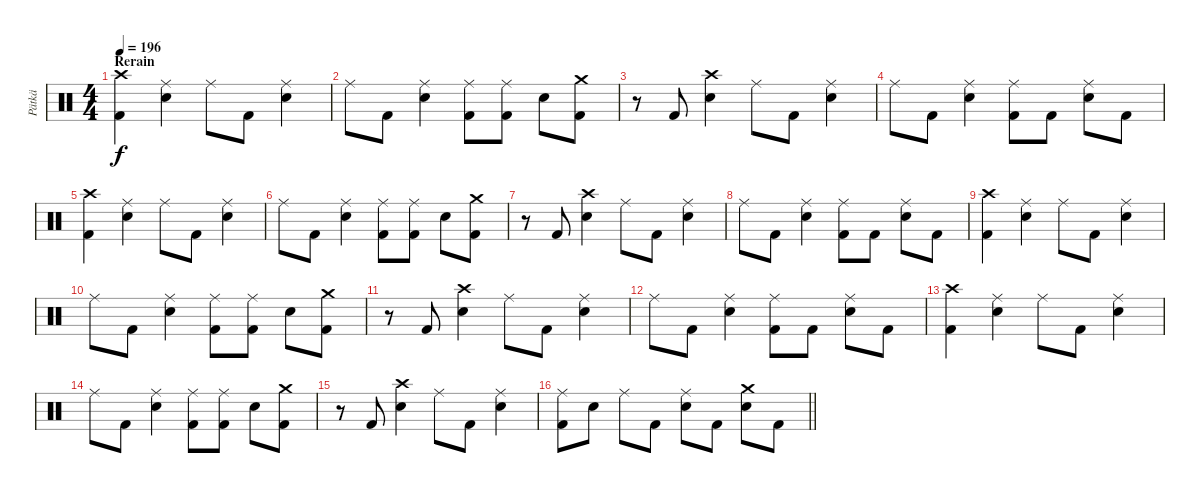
\track ("Pätkä" "Pätkä") {instrument percussion}
\staff {score}
\articulation defaults
\ts (4 4)
\section ("" "Rerain")
\tempo 196
\clef neutral
\ks c
("Crash high (hit)" "Kick (hit) 2").4{dy f} ("Ride (middle)" "Electric Snare (hit)").4 "Ride (middle)".8 "Kick (hit) 2".8 ("Ride (middle)" "Electric Snare (hit)").4 |
"Ride (middle)".8 "Kick (hit) 2".8 ("Ride (middle)" "Electric Snare (hit)").4 ("Ride (middle)" "Kick (hit) 2").8 ("Ride (middle)" "Kick (hit) 2").8 "Electric Snare (hit)".8 ("Crash medium (hit)" "Kick (hit) 2").8 |
r.8 "Kick (hit) 2".8 ("Crash high (hit)" "Electric Snare (hit)").4 "Ride (middle)".8 "Kick (hit) 2".8 ("Ride (middle)" "Electric Snare (hit)").4 |
"Ride (middle)".8 "Kick (hit) 2".8 ("Ride (middle)" "Electric Snare (hit)").4 ("Ride (middle)" "Kick (hit) 2").8 "Kick (hit) 2".8 ("Ride (middle)" "Electric Snare (hit)").8 "Kick (hit) 2".8 |
("Crash high (hit)" "Kick (hit) 2").4 ("Ride (middle)" "Electric Snare (hit)").4 "Ride (middle)".8 "Kick (hit) 2".8 ("Ride (middle)" "Electric Snare (hit)").4 |
"Ride (middle)".8 "Kick (hit) 2".8 ("Ride (middle)" "Electric Snare (hit)").4 ("Ride (middle)" "Kick (hit) 2").8 ("Ride (middle)" "Kick (hit) 2").8 "Electric Snare (hit)".8 ("Crash medium (hit)" "Kick (hit) 2").8 |
r.8 "Kick (hit) 2".8 ("Crash high (hit)" "Electric Snare (hit)").4 "Ride (middle)".8 "Kick (hit) 2".8 ("Ride (middle)" "Electric Snare (hit)").4 |
"Ride (middle)".8 "Kick (hit) 2".8 ("Ride (middle)" "Electric Snare (hit)").4 ("Ride (middle)" "Kick (hit) 2").8 "Kick (hit) 2".8 ("Ride (middle)" "Electric Snare (hit)").8 "Kick (hit) 2".8 |
("Crash high (hit)" "Kick (hit) 2").4 ("Ride (middle)" "Electric Snare (hit)").4 "Ride (middle)".8 "Kick (hit) 2".8 ("Ride (middle)" "Electric Snare (hit)").4 |
"Ride (middle)".8 "Kick (hit) 2".8 ("Ride (middle)" "Electric Snare (hit)").4 ("Ride (middle)" "Kick (hit) 2").8 ("Ride (middle)" "Kick (hit) 2").8 "Electric Snare (hit)".8 ("Crash medium (hit)" "Kick (hit) 2").8 |
r.8 "Kick (hit) 2".8 ("Crash high (hit)" "Electric Snare (hit)").4 "Ride (middle)".8 "Kick (hit) 2".8 ("Ride (middle)" "Electric Snare (hit)").4 |
"Ride (middle)".8 "Kick (hit) 2".8 ("Ride (middle)" "Electric Snare (hit)").4 ("Ride (middle)" "Kick (hit) 2").8 "Kick (hit) 2".8 ("Ride (middle)" "Electric Snare (hit)").8 "Kick (hit) 2".8 |
("Crash high (hit)" "Kick (hit) 2").4 ("Ride (middle)" "Electric Snare (hit)").4 "Ride (middle)".8 "Kick (hit) 2".8 ("Ride (middle)" "Electric Snare (hit)").4 |
"Ride (middle)".8 "Kick (hit) 2".8 ("Ride (middle)" "Electric Snare (hit)").4 ("Ride (middle)" "Kick (hit) 2").8 ("Ride (middle)" "Kick (hit) 2").8 "Electric Snare (hit)".8 ("Crash medium (hit)" "Kick (hit) 2").8 |
r.8 "Kick (hit) 2".8 ("Crash high (hit)" "Electric Snare (hit)").4 "Ride (middle)".8 "Kick (hit) 2".8 ("Ride (middle)" "Electric Snare (hit)").4 |
\barLineRight lightlight
("Ride (middle)" "Kick (hit) 2").8 "Electric Snare (hit)".8 "Ride (middle)".8 "Kick (hit) 2".8 ("Ride (middle)" "Electric Snare (hit)").8 "Kick (hit) 2".8 ("Crash medium (hit)" "Electric Snare (hit)").8 "Kick (hit) 2".8
